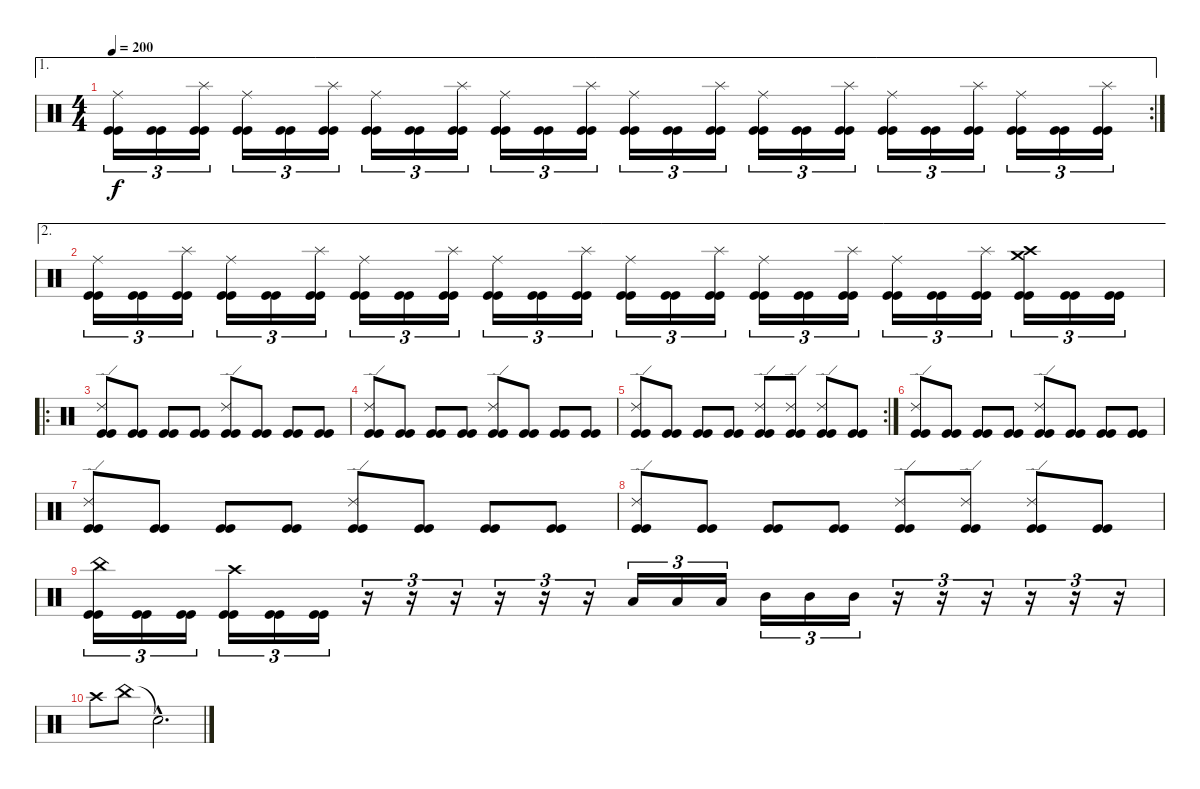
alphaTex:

\track "" {instrument percussion}
\staff {score}
\articulation defaults
\ae 1
\rc 2
\ts (4 4)
\tempo 200
\clef neutral
\ks c
("Ride (middle)" "Kick (hit)" "Kick (hit)").16{tu (3 2) dy f} ("Kick (hit)" "Kick (hit)").16{tu (3 2)} ("Splash (hit)" "Kick (hit)" "Kick (hit)").16{tu (3 2)} ("Ride (middle)" "Kick (hit)" "Kick (hit)").16{tu (3 2)} ("Kick (hit)" "Kick (hit)").16{tu (3 2)} ("Splash (hit)" "Kick (hit)" "Kick (hit)").16{tu (3 2)} ("Ride (middle)" "Kick (hit)" "Kick (hit)").16{tu (3 2)} ("Kick (hit)" "Kick (hit)").16{tu (3 2)} ("Splash (hit)" "Kick (hit)" "Kick (hit)").16{tu (3 2)} ("Ride (middle)" "Kick (hit)" "Kick (hit)").16{tu (3 2)} ("Kick (hit)" "Kick (hit)").16{tu (3 2)} ("Splash (hit)" "Kick (hit)" "Kick (hit)").16{tu (3 2)} ("Ride (middle)" "Kick (hit)" "Kick (hit)").16{tu (3 2)} ("Kick (hit)" "Kick (hit)").16{tu (3 2)} ("Splash (hit)" "Kick (hit)" "Kick (hit)").16{tu (3 2)} ("Ride (middle)" "Kick (hit)" "Kick (hit)").16{tu (3 2)} ("Kick (hit)" "Kick (hit)").16{tu (3 2)} ("Splash (hit)" "Kick (hit)" "Kick (hit)").16{tu (3 2)} ("Ride (middle)" "Kick (hit)" "Kick (hit)").16{tu (3 2)} ("Kick (hit)" "Kick (hit)").16{tu (3 2)} ("Splash (hit)" "Kick (hit)" "Kick (hit)").16{tu (3 2)} ("Ride (middle)" "Kick (hit)" "Kick (hit)").16{tu (3 2)} ("Kick (hit)" "Kick (hit)").16{tu (3 2)} ("Splash (hit)" "Kick (hit)" "Kick (hit)").16{tu (3 2)} |
\ae 2
("Ride (middle)" "Kick (hit)" "Kick (hit)").16{tu (3 2)} ("Kick (hit)" "Kick (hit)").16{tu (3 2)} ("Splash (hit)" "Kick (hit)" "Kick (hit)").16{tu (3 2)} ("Ride (middle)" "Kick (hit)" "Kick (hit)").16{tu (3 2)} ("Kick (hit)" "Kick (hit)").16{tu (3 2)} ("Splash (hit)" "Kick (hit)" "Kick (hit)").16{tu (3 2)} ("Ride (middle)" "Kick (hit)" "Kick (hit)").16{tu (3 2)} ("Kick (hit)" "Kick (hit)").16{tu (3 2)} ("Splash (hit)" "Kick (hit)" "Kick (hit)").16{tu (3 2)} ("Ride (middle)" "Kick (hit)" "Kick (hit)").16{tu (3 2)} ("Kick (hit)" "Kick (hit)").16{tu (3 2)} ("Splash (hit)" "Kick (hit)" "Kick (hit)").16{tu (3 2)} ("Ride (middle)" "Kick (hit)" "Kick (hit)").16{tu (3 2)} ("Kick (hit)" "Kick (hit)").16{tu (3 2)} ("Splash (hit)" "Kick (hit)" "Kick (hit)").16{tu (3 2)} ("Ride (middle)" "Kick (hit)" "Kick (hit)").16{tu (3 2)} ("Kick (hit)" "Kick (hit)").16{tu (3 2)} ("Splash (hit)" "Kick (hit)" "Kick (hit)").16{tu (3 2)} ("Ride (middle)" "Kick (hit)" "Kick (hit)").16{tu (3 2)} ("Kick (hit)" "Kick (hit)").16{tu (3 2)} ("Splash (hit)" "Kick (hit)" "Kick (hit)").16{tu (3 2)} ("Crash medium (hit)" "Crash high (hit)" "Kick (hit)" "Kick (hit)").16{tu (3 2)} ("Kick (hit)" "Kick (hit)").16{tu (3 2)} ("Kick (hit)" "Kick (hit)").16{tu (3 2)} |
\ro
("Ride (edge) 2" "Kick (hit)" "Kick (hit)").8 ("Kick (hit)" "Kick (hit)").8 ("Kick (hit)" "Kick (hit)").8 ("Kick (hit)" "Kick (hit)").8 ("Ride (edge) 2" "Kick (hit)" "Kick (hit)").8 ("Kick (hit)" "Kick (hit)").8 ("Kick (hit)" "Kick (hit)").8 ("Kick (hit)" "Kick (hit)").8 |
("Ride (edge) 2" "Kick (hit)" "Kick (hit)").8 ("Kick (hit)" "Kick (hit)").8 ("Kick (hit)" "Kick (hit)").8 ("Kick (hit)" "Kick (hit)").8 ("Ride (edge) 2" "Kick (hit)" "Kick (hit)").8 ("Kick (hit)" "Kick (hit)").8 ("Kick (hit)" "Kick (hit)").8 ("Kick (hit)" "Kick (hit)").8 |
\rc 2
("Ride (edge) 2" "Kick (hit)" "Kick (hit)").8 ("Kick (hit)" "Kick (hit)").8 ("Kick (hit)" "Kick (hit)").8 ("Kick (hit)" "Kick (hit)").8 ("Ride (edge) 2" "Kick (hit)" "Kick (hit)").8 ("Ride (edge) 2" "Kick (hit)" "Kick (hit)").8 ("Ride (edge) 2" "Kick (hit)" "Kick (hit)").8 ("Kick (hit)" "Kick (hit)").8 |
("Ride (edge) 2" "Kick (hit)" "Kick (hit)").8 ("Kick (hit)" "Kick (hit)").8 ("Kick (hit)" "Kick (hit)").8 ("Kick (hit)" "Kick (hit)").8 ("Ride (edge) 2" "Kick (hit)" "Kick (hit)").8 ("Kick (hit)" "Kick (hit)").8 ("Kick (hit)" "Kick (hit)").8 ("Kick (hit)" "Kick (hit)").8 |
("Ride (edge) 2" "Kick (hit)" "Kick (hit)").8 ("Kick (hit)" "Kick (hit)").8 ("Kick (hit)" "Kick (hit)").8 ("Kick (hit)" "Kick (hit)").8 ("Ride (edge) 2" "Kick (hit)" "Kick (hit)").8 ("Kick (hit)" "Kick (hit)").8 ("Kick (hit)" "Kick (hit)").8 ("Kick (hit)" "Kick (hit)").8 |
("Ride (edge) 2" "Kick (hit)" "Kick (hit)").8 ("Kick (hit)" "Kick (hit)").8 ("Kick (hit)" "Kick (hit)").8 ("Kick (hit)" "Kick (hit)").8 ("Ride (edge) 2" "Kick (hit)" "Kick (hit)").8 ("Ride (edge) 2" "Kick (hit)" "Kick (hit)").8 ("Ride (edge) 2" "Kick (hit)" "Kick (hit)").8 ("Kick (hit)" "Kick (hit)").8 |
("China (hit)" "Kick (hit)" "Kick (hit)").16{tu (3 2)} ("Kick (hit)" "Kick (hit)").16{tu (3 2)} ("Kick (hit)" "Kick (hit)").16{tu (3 2)} ("Crash high (hit)" "Kick (hit)" "Kick (hit)").16{tu (3 2)} ("Kick (hit)" "Kick (hit)").16{tu (3 2)} ("Kick (hit)" "Kick (hit)").16{tu (3 2)} r.16{tu (3 2)} r.16{tu (3 2)} r.16{tu (3 2)} r.16{tu (3 2)} r.16{tu (3 2)} r.16{tu (3 2)} "Low Tom (hit)".16{tu (3 2)} "Low Tom (hit)".16{tu (3 2)} "Low Tom (hit)".16{tu (3 2)} "Mid Tom (hit)".16{tu (3 2)} "Mid Tom (hit)".16{tu (3 2)} "Mid Tom (hit)".16{tu (3 2)} r.16{tu (3 2)} r.16{tu (3 2)} r.16{tu (3 2)} r.16{tu (3 2)} r.16{tu (3 2)} r.16{tu (3 2)} |
"Crash high (hit)".8 "China (hit)".8 "Snare (hit)"{hac t}.2{d}
